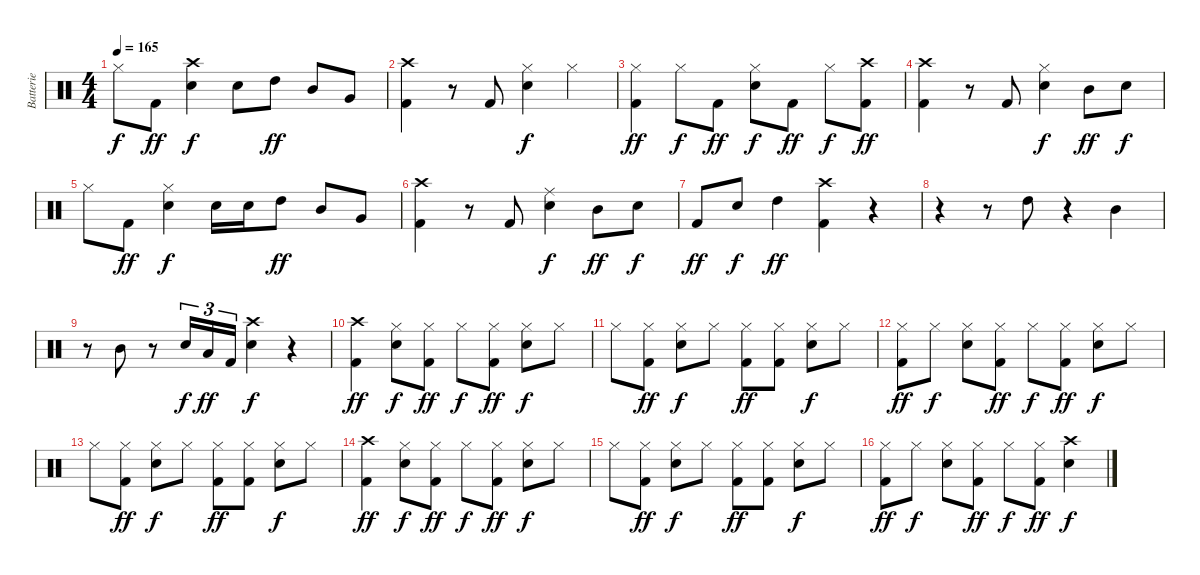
\track ("Batterie" "Batterie") {instrument percussion}
\staff {score}
\articulation defaults
\ts (4 4)
\tempo 165
\clef neutral
\ks c "Hi-Hat (closed)".8{dy f} "Kick (hit) 2".8{dy ff}
("Crash high (hit)" "Snare (hit) 2").4{dy f} "Snare (hit) 2".8 "High Tom (hit)".8{dy ff} "Mid Tom (hit)".8 "Very Low Tom (hit)".8 |
("Crash high (hit)" "Kick (hit) 2").4 r.8 "Kick (hit) 2".8 ("Hi-Hat (closed)" "Snare (hit) 2").4{dy f} "Hi-Hat (closed)".4 |
("Hi-Hat (closed)" "Kick (hit) 2").4{dy ff} "Hi-Hat (closed)".8{dy f} "Kick (hit) 2".8{dy ff} ("Hi-Hat (closed)" "Snare (hit) 2").8{dy f} "Kick (hit) 2".8{dy ff} "Hi-Hat (closed)".8{dy f} ("Crash high (hit)" "Kick (hit) 2").8{dy ff} |
("Crash high (hit)" "Kick (hit) 2").4 r.8 "Kick (hit) 2".8 ("Hi-Hat (closed)" "Snare (hit) 2").4{dy f} "Mid Tom (hit)".8{dy ff} "Snare (hit) 2".8{dy f} |
"Hi-Hat (closed)".8 "Kick (hit) 2".8{dy ff} ("Hi-Hat (closed)" "Snare (hit) 2").4{dy f} "Snare (hit) 2".16 "Snare (hit) 2".16 "High Tom (hit)".8{dy ff} "Mid Tom (hit)".8 "Very Low Tom (hit)".8 |
("Crash high (hit)" "Kick (hit) 2").4 r.8 "Kick (hit) 2".8 ("Ride (middle)" "Snare (hit) 2").4{dy f} "Mid Tom (hit)".8{dy ff} "Snare (hit) 2".8{dy f} |
"Kick (hit) 2".8{dy ff} "Snare (hit) 2".8{dy f} "High Tom (hit)".4{dy ff} ("Crash high (hit)" "Kick (hit) 2").4 r.4 |
r.4 r.8 "High Tom (hit)".8 r.4 "Mid Tom (hit)".4 |
r.8 "Mid Tom (hit)".8 r.8 "Snare (hit) 2".16{tu (3 2) dy f} "Low Tom (hit)".16{tu (3 2) dy ff} "Kick (hit) 2".16{tu (3 2)} ("Crash high (hit)" "Snare (hit) 2").4{dy f} r.4 |
("Crash high (hit)" "Kick (hit) 2").4{dy ff} ("Hi-Hat (closed)" "Snare (hit) 2").8{dy f} ("Hi-Hat (closed)" "Kick (hit) 2").8{dy ff} "Hi-Hat (closed)".8{dy f} ("Hi-Hat (closed)" "Kick (hit) 2").8{dy ff} ("Hi-Hat (closed)" "Snare (hit) 2").8{dy f} "Hi-Hat (closed)".8 |
"Hi-Hat (closed)".8 ("Hi-Hat (closed)" "Kick (hit) 2").8{dy ff} ("Hi-Hat (closed)" "Snare (hit) 2").8{dy f} "Hi-Hat (closed)".8 ("Hi-Hat (closed)" "Kick (hit) 2").8{dy ff} ("Hi-Hat (closed)" "Kick (hit) 2").8 ("Hi-Hat (closed)" "Snare (hit) 2").8{dy f} "Hi-Hat (closed)".8 |
("Hi-Hat (closed)" "Kick (hit) 2").8{dy ff} "Hi-Hat (closed)".8{dy f} ("Hi-Hat (closed)" "Snare (hit) 2").8 ("Hi-Hat (closed)" "Kick (hit) 2").8{dy ff} "Hi-Hat (closed)".8{dy f} ("Hi-Hat (closed)" "Kick (hit) 2").8{dy ff} ("Hi-Hat (closed)" "Snare (hit) 2").8{dy f} "Hi-Hat (closed)".8 |
"Hi-Hat (closed)".8 ("Hi-Hat (closed)" "Kick (hit) 2").8{dy ff} ("Hi-Hat (closed)" "Snare (hit) 2").8{dy f} "Hi-Hat (closed)".8 ("Hi-Hat (closed)" "Kick (hit) 2").8{dy ff} ("Hi-Hat (closed)" "Kick (hit) 2").8 ("Hi-Hat (closed)" "Snare (hit) 2").8{dy f} "Hi-Hat (closed)".8 |
("Crash high (hit)" "Kick (hit) 2").4{dy ff} ("Hi-Hat (closed)" "Snare (hit) 2").8{dy f} ("Hi-Hat (closed)" "Kick (hit) 2").8{dy ff} "Hi-Hat (closed)".8{dy f} ("Hi-Hat (closed)" "Kick (hit) 2").8{dy ff} ("Hi-Hat (closed)" "Snare (hit) 2").8{dy f} "Hi-Hat (closed)".8 |
"Hi-Hat (closed)".8 ("Hi-Hat (closed)" "Kick (hit) 2").8{dy ff} ("Hi-Hat (closed)" "Snare (hit) 2").8{dy f} "Hi-Hat (closed)".8 ("Hi-Hat (closed)" "Kick (hit) 2").8{dy ff} ("Hi-Hat (closed)" "Kick (hit) 2").8 ("Hi-Hat (closed)" "Snare (hit) 2").8{dy f} "Hi-Hat (closed)".8 |
("Hi-Hat (closed)" "Kick (hit) 2").8{dy ff} "Hi-Hat (closed)".8{dy f} ("Hi-Hat (closed)" "Snare (hit) 2").8 ("Hi-Hat (closed)" "Kick (hit) 2").8{dy ff} "Hi-Hat (closed)".8{dy f} ("Hi-Hat (closed)" "Kick (hit) 2").8{dy ff} ("Crash high (hit)" "Snare (hit) 2").4{dy f}
